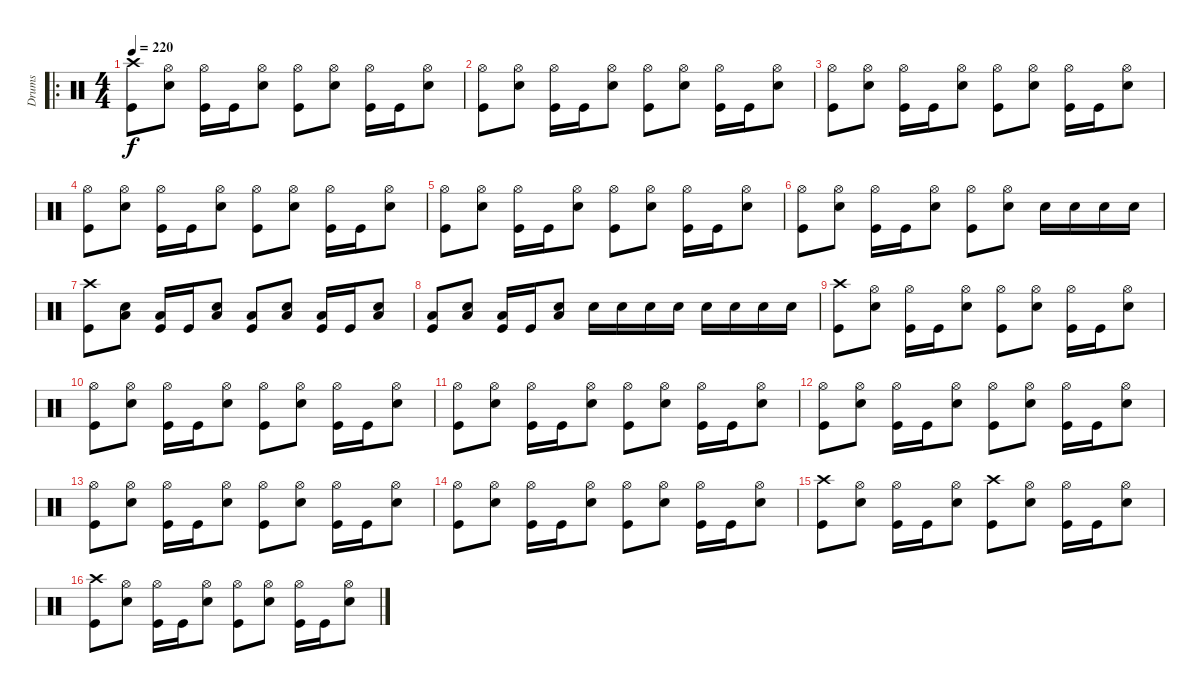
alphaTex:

\track ("Drums" "Drums") {instrument percussion}
\staff {score}
\articulation defaults
\ro
\ts (4 4)
\tempo 220
\clef neutral
\ks c
("Crash high (hit)" "Kick (hit)").8{dy f} ("Hi-Hat (open)" "Electric Snare (hit)").8 ("Hi-Hat (open)" "Kick (hit)").16 "Kick (hit)".16 ("Hi-Hat (open)" "Electric Snare (hit)").8 ("Hi-Hat (open)" "Kick (hit)").8 ("Hi-Hat (open)" "Electric Snare (hit)").8 ("Hi-Hat (open)" "Kick (hit)").16 "Kick (hit)".16 ("Hi-Hat (open)" "Electric Snare (hit)").8 |
("Hi-Hat (open)" "Kick (hit)").8 ("Hi-Hat (open)" "Electric Snare (hit)").8 ("Hi-Hat (open)" "Kick (hit)").16 "Kick (hit)".16 ("Hi-Hat (open)" "Electric Snare (hit)").8 ("Hi-Hat (open)" "Kick (hit)").8 ("Hi-Hat (open)" "Electric Snare (hit)").8 ("Hi-Hat (open)" "Kick (hit)").16 "Kick (hit)".16 ("Hi-Hat (open)" "Electric Snare (hit)").8 |
("Hi-Hat (open)" "Kick (hit)").8 ("Hi-Hat (open)" "Electric Snare (hit)").8 ("Hi-Hat (open)" "Kick (hit)").16 "Kick (hit)".16 ("Hi-Hat (open)" "Electric Snare (hit)").8 ("Hi-Hat (open)" "Kick (hit)").8 ("Hi-Hat (open)" "Electric Snare (hit)").8 ("Hi-Hat (open)" "Kick (hit)").16 "Kick (hit)".16 ("Hi-Hat (open)" "Electric Snare (hit)").8 |
("Hi-Hat (open)" "Kick (hit)").8 ("Hi-Hat (open)" "Electric Snare (hit)").8 ("Hi-Hat (open)" "Kick (hit)").16 "Kick (hit)".16 ("Hi-Hat (open)" "Electric Snare (hit)").8 ("Hi-Hat (open)" "Kick (hit)").8 ("Hi-Hat (open)" "Electric Snare (hit)").8 ("Hi-Hat (open)" "Kick (hit)").16 "Kick (hit)".16 ("Hi-Hat (open)" "Electric Snare (hit)").8 |
("Hi-Hat (open)" "Kick (hit)").8 ("Hi-Hat (open)" "Electric Snare (hit)").8 ("Hi-Hat (open)" "Kick (hit)").16 "Kick (hit)".16 ("Hi-Hat (open)" "Electric Snare (hit)").8 ("Hi-Hat (open)" "Kick (hit)").8 ("Hi-Hat (open)" "Electric Snare (hit)").8 ("Hi-Hat (open)" "Kick (hit)").16 "Kick (hit)".16 ("Hi-Hat (open)" "Electric Snare (hit)").8 |
("Hi-Hat (open)" "Kick (hit)").8 ("Hi-Hat (open)" "Electric Snare (hit)").8 ("Hi-Hat (open)" "Kick (hit)").16 "Kick (hit)".16 ("Hi-Hat (open)" "Electric Snare (hit)").8 ("Hi-Hat (open)" "Kick (hit)").8 ("Hi-Hat (open)" "Electric Snare (hit)").8 "Electric Snare (hit)".16 "Electric Snare (hit)".16 "Electric Snare (hit)".16 "Electric Snare (hit)".16 |
("Crash high (hit)" "Kick (hit)").8 ("Low Floor Tom (hit)" "Electric Snare (hit)").8 ("Low Floor Tom (hit)" "Kick (hit)").16 "Kick (hit)".16 ("Low Floor Tom (hit)" "Electric Snare (hit)").8 ("Low Floor Tom (hit)" "Kick (hit)").8 ("Low Floor Tom (hit)" "Electric Snare (hit)").8 ("Low Floor Tom (hit)" "Kick (hit)").16 "Kick (hit)".16 ("Low Floor Tom (hit)" "Electric Snare (hit)").8 |
("Low Floor Tom (hit)" "Kick (hit)").8 ("Low Floor Tom (hit)" "Electric Snare (hit)").8 ("Low Floor Tom (hit)" "Kick (hit)").16 "Kick (hit)".16 ("Low Floor Tom (hit)" "Electric Snare (hit)").8 "Electric Snare (hit)".16 "Electric Snare (hit)".16 "Electric Snare (hit)".16 "Electric Snare (hit)".16 "Electric Snare (hit)".16 "Electric Snare (hit)".16 "Electric Snare (hit)".16 "Electric Snare (hit)".16 |
("Crash high (hit)" "Kick (hit)").8 ("Hi-Hat (open)" "Electric Snare (hit)").8 ("Hi-Hat (open)" "Kick (hit)").16 "Kick (hit)".16 ("Hi-Hat (open)" "Electric Snare (hit)").8 ("Hi-Hat (open)" "Kick (hit)").8 ("Hi-Hat (open)" "Electric Snare (hit)").8 ("Hi-Hat (open)" "Kick (hit)").16 "Kick (hit)".16 ("Hi-Hat (open)" "Electric Snare (hit)").8 |
("Hi-Hat (open)" "Kick (hit)").8 ("Hi-Hat (open)" "Electric Snare (hit)").8 ("Hi-Hat (open)" "Kick (hit)").16 "Kick (hit)".16 ("Hi-Hat (open)" "Electric Snare (hit)").8 ("Hi-Hat (open)" "Kick (hit)").8 ("Hi-Hat (open)" "Electric Snare (hit)").8 ("Hi-Hat (open)" "Kick (hit)").16 "Kick (hit)".16 ("Hi-Hat (open)" "Electric Snare (hit)").8 |
("Hi-Hat (open)" "Kick (hit)").8 ("Hi-Hat (open)" "Electric Snare (hit)").8 ("Hi-Hat (open)" "Kick (hit)").16 "Kick (hit)".16 ("Hi-Hat (open)" "Electric Snare (hit)").8 ("Hi-Hat (open)" "Kick (hit)").8 ("Hi-Hat (open)" "Electric Snare (hit)").8 ("Hi-Hat (open)" "Kick (hit)").16 "Kick (hit)".16 ("Hi-Hat (open)" "Electric Snare (hit)").8 |
("Hi-Hat (open)" "Kick (hit)").8 ("Hi-Hat (open)" "Electric Snare (hit)").8 ("Hi-Hat (open)" "Kick (hit)").16 "Kick (hit)".16 ("Hi-Hat (open)" "Electric Snare (hit)").8 ("Hi-Hat (open)" "Kick (hit)").8 ("Hi-Hat (open)" "Electric Snare (hit)").8 ("Hi-Hat (open)" "Kick (hit)").16 "Kick (hit)".16 ("Hi-Hat (open)" "Electric Snare (hit)").8 |
("Hi-Hat (open)" "Kick (hit)").8 ("Hi-Hat (open)" "Electric Snare (hit)").8 ("Hi-Hat (open)" "Kick (hit)").16 "Kick (hit)".16 ("Hi-Hat (open)" "Electric Snare (hit)").8 ("Hi-Hat (open)" "Kick (hit)").8 ("Hi-Hat (open)" "Electric Snare (hit)").8 ("Hi-Hat (open)" "Kick (hit)").16 "Kick (hit)".16 ("Hi-Hat (open)" "Electric Snare (hit)").8 |
("Hi-Hat (open)" "Kick (hit)").8 ("Hi-Hat (open)" "Electric Snare (hit)").8 ("Hi-Hat (open)" "Kick (hit)").16 "Kick (hit)".16 ("Hi-Hat (open)" "Electric Snare (hit)").8 ("Hi-Hat (open)" "Kick (hit)").8 ("Hi-Hat (open)" "Electric Snare (hit)").8 ("Hi-Hat (open)" "Kick (hit)").16 "Kick (hit)".16 ("Hi-Hat (open)" "Electric Snare (hit)").8 |
("Crash high (hit)" "Kick (hit)").8 ("Hi-Hat (open)" "Electric Snare (hit)").8 ("Hi-Hat (open)" "Kick (hit)").16 "Kick (hit)".16 ("Hi-Hat (open)" "Electric Snare (hit)").8 ("Crash high (hit)" "Kick (hit)").8 ("Hi-Hat (open)" "Electric Snare (hit)").8 ("Hi-Hat (open)" "Kick (hit)").16 "Kick (hit)".16 ("Hi-Hat (open)" "Electric Snare (hit)").8 |
("Crash high (hit)" "Kick (hit)").8 ("Hi-Hat (open)" "Electric Snare (hit)").8 ("Hi-Hat (open)" "Kick (hit)").16 "Kick (hit)".16 ("Hi-Hat (open)" "Electric Snare (hit)").8 ("Hi-Hat (open)" "Kick (hit)").8 ("Hi-Hat (open)" "Electric Snare (hit)").8 ("Hi-Hat (open)" "Kick (hit)").16 "Kick (hit)".16 ("Hi-Hat (open)" "Electric Snare (hit)").8
